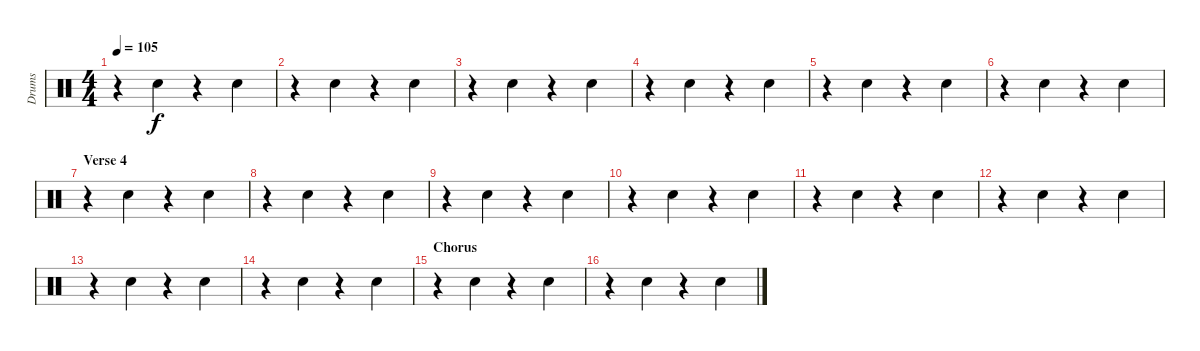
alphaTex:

\track ("Drums" "Drums") {instrument percussion}
\staff {score}
\articulation defaults
\ts (4 4)
\tempo 105
\clef neutral
\ks c
r.4{dy f} "Hand Clap (hit)".4 r.4 "Hand Clap (hit)".4 |
r.4 "Hand Clap (hit)".4 r.4 "Hand Clap (hit)".4 |
r.4 "Hand Clap (hit)".4 r.4 "Hand Clap (hit)".4 |
r.4 "Hand Clap (hit)".4 r.4 "Hand Clap (hit)".4 |
r.4 "Hand Clap (hit)".4 r.4 "Hand Clap (hit)".4 |
r.4 "Hand Clap (hit)".4 r.4 "Hand Clap (hit)".4 |
\section ("" "Verse 4")
r.4 "Hand Clap (hit)".4 r.4 "Hand Clap (hit)".4 |
r.4 "Hand Clap (hit)".4 r.4 "Hand Clap (hit)".4 |
r.4 "Hand Clap (hit)".4 r.4 "Hand Clap (hit)".4 |
r.4 "Hand Clap (hit)".4 r.4 "Hand Clap (hit)".4 |
r.4 "Hand Clap (hit)".4 r.4 "Hand Clap (hit)".4 |
r.4 "Hand Clap (hit)".4 r.4 "Hand Clap (hit)".4 |
r.4 "Hand Clap (hit)".4 r.4 "Hand Clap (hit)".4 |
r.4 "Hand Clap (hit)".4 r.4 "Hand Clap (hit)".4 |
\section ("" "Chorus")
r.4 "Hand Clap (hit)".4 r.4 "Hand Clap (hit)".4 |
r.4 "Hand Clap (hit)".4 r.4 "Hand Clap (hit)".4
